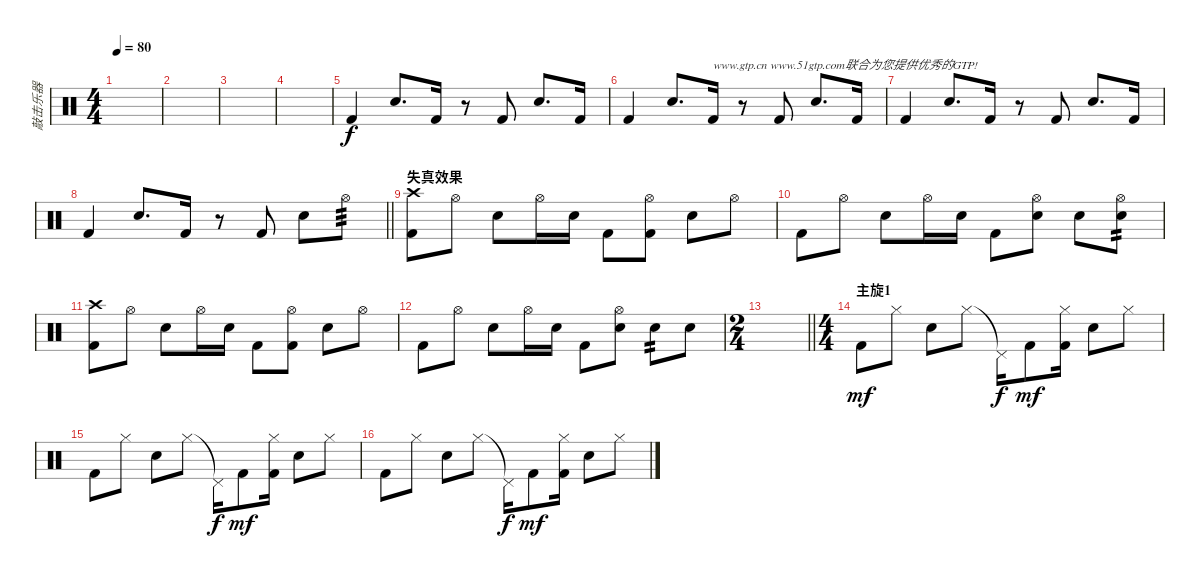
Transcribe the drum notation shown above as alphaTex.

\track ("敲击乐器" "敲击乐器") {instrument percussion}
\staff {score}
\articulation defaults
\ts (4 4)
\tempo 80
\clef neutral
\ks c
|
|
|
|
"Kick (hit) 2".4 "Snare (hit) 2".8{d} "Kick (hit) 2".16 r.8 "Kick (hit) 2".8 "Snare (hit) 2".8{d} "Kick (hit) 2".16 |
"Kick (hit) 2".4 "Snare (hit) 2".8{d} "Kick (hit) 2".16{txt "www.gtp.cn www.51gtp.com联合为您提供优秀的GTP!"} r.8 "Kick (hit) 2".8 "Snare (hit) 2".8{d} "Kick (hit) 2".16 |
"Kick (hit) 2".4 "Snare (hit) 2".8{d} "Kick (hit) 2".16 r.8 "Kick (hit) 2".8 "Snare (hit) 2".8{d} "Kick (hit) 2".16 |
\barLineRight lightlight "Kick (hit) 2".4 "Snare (hit) 2".8{d} "Kick (hit) 2".16
r.8 "Kick (hit) 2".8 "Snare (hit) 2".8 "Hi-Hat (open)".8{tp 3 dy f} |
\section ("" "失真效果")
("Crash high (hit)" "Kick (hit) 2").8 "Hi-Hat (open)".8 "Snare (hit) 2".8 "Hi-Hat (open)".16 "Snare (hit) 2".16 "Kick (hit) 2".8 ("Hi-Hat (open)" "Kick (hit) 2").8 "Snare (hit) 2".8 "Hi-Hat (open)".8 |
"Kick (hit) 2".8 "Hi-Hat (open)".8 "Snare (hit) 2".8 "Hi-Hat (open)".16 "Snare (hit) 2".16 "Kick (hit) 2".8 ("Hi-Hat (open)" "Snare (hit) 2").8 "Snare (hit) 2".8 ("Hi-Hat (open)" "Snare (hit) 2").8{tp 2} |
("Crash high (hit)" "Kick (hit) 2").8 "Hi-Hat (open)".8 "Snare (hit) 2".8 "Hi-Hat (open)".16 "Snare (hit) 2".16 "Kick (hit) 2".8 ("Hi-Hat (open)" "Kick (hit) 2").8 "Snare (hit) 2".8 "Hi-Hat (open)".8 |
"Kick (hit) 2".8 "Hi-Hat (open)".8 "Snare (hit) 2".8 "Hi-Hat (open)".16 "Snare (hit) 2".16 "Kick (hit) 2".8 ("Hi-Hat (open)" "Snare (hit) 2").8 "Snare (hit) 2".8{tp 2} "Snare (hit) 2".8 |
\ts (2 4)
\barLineRight lightlight
|
\ts (4 4)
\section ("" "主旋1")
"Kick (hit) 2".8{dy mf} "Hi-Hat (closed)".8 "Snare (hit) 2".8 "Hi-Hat (closed)".8 "Pedal Hi-Hat (hit)"{t}.16{dy f} "Kick (hit) 2".8{dy mf} ("Hi-Hat (closed)" "Kick (hit) 2").16 "Snare (hit) 2".8 "Hi-Hat (closed)".8 |
"Kick (hit) 2".8 "Hi-Hat (closed)".8 "Snare (hit) 2".8 "Hi-Hat (closed)".8 "Pedal Hi-Hat (hit)"{t}.16{dy f} "Kick (hit) 2".8{dy mf} ("Hi-Hat (closed)" "Kick (hit) 2").16 "Snare (hit) 2".8 "Hi-Hat (closed)".8 |
"Kick (hit) 2".8 "Hi-Hat (closed)".8 "Snare (hit) 2".8 "Hi-Hat (closed)".8 "Pedal Hi-Hat (hit)"{t}.16{dy f} "Kick (hit) 2".8{dy mf} ("Hi-Hat (closed)" "Kick (hit) 2").16 "Snare (hit) 2".8 "Hi-Hat (closed)".8
